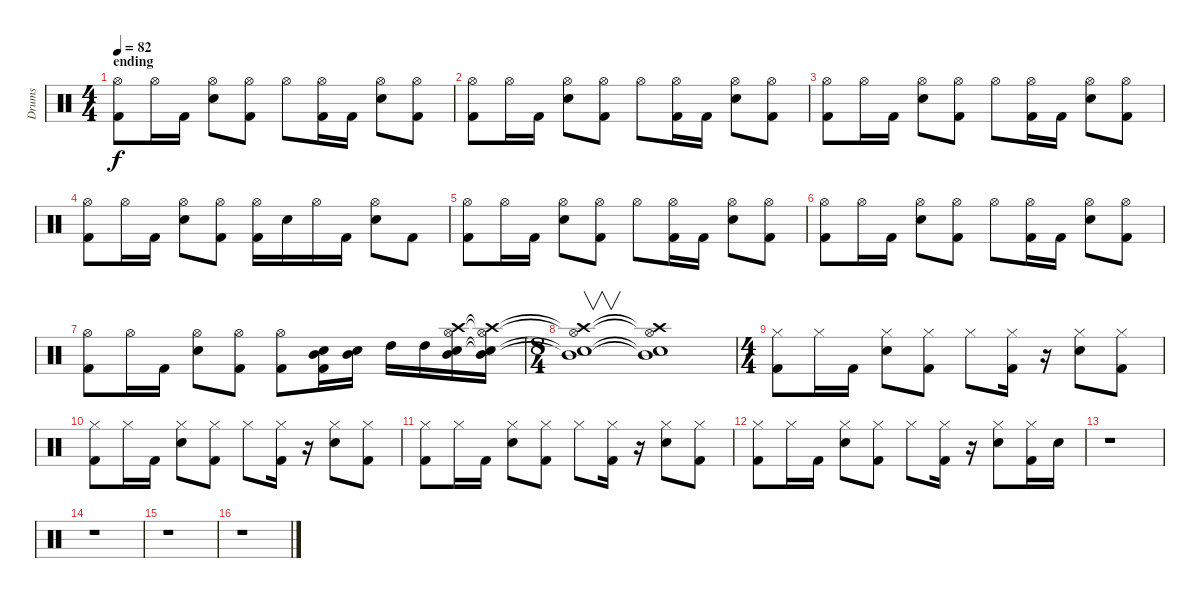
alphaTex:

\track ("Drums" "Drums") {instrument percussion}
\staff {score}
\articulation defaults
\ts (4 4)
\section ("" "ending")
\tempo 82
\clef neutral
\ks c
("Hi-Hat (open)" "Kick (hit) 2").8{dy f} "Hi-Hat (open)".16 "Kick (hit) 2".16 ("Hi-Hat (open)" "Snare (hit) 2").8 ("Hi-Hat (open)" "Kick (hit) 2").8 "Hi-Hat (open)".8 ("Hi-Hat (open)" "Kick (hit) 2").16 "Kick (hit) 2".16 ("Hi-Hat (open)" "Snare (hit) 2").8 ("Hi-Hat (open)" "Kick (hit) 2").8 |
("Hi-Hat (open)" "Kick (hit) 2").8 "Hi-Hat (open)".16 "Kick (hit) 2".16 ("Hi-Hat (open)" "Snare (hit) 2").8 ("Hi-Hat (open)" "Kick (hit) 2").8 "Hi-Hat (open)".8 ("Hi-Hat (open)" "Kick (hit) 2").16 "Kick (hit) 2".16 ("Hi-Hat (open)" "Snare (hit) 2").8 ("Hi-Hat (open)" "Kick (hit) 2").8 |
("Hi-Hat (open)" "Kick (hit) 2").8 "Hi-Hat (open)".16 "Kick (hit) 2".16 ("Hi-Hat (open)" "Snare (hit) 2").8 ("Hi-Hat (open)" "Kick (hit) 2").8 "Hi-Hat (open)".8 ("Hi-Hat (open)" "Kick (hit) 2").16 "Kick (hit) 2".16 ("Hi-Hat (open)" "Snare (hit) 2").8 ("Hi-Hat (open)" "Kick (hit) 2").8 |
("Hi-Hat (open)" "Kick (hit) 2").8 "Hi-Hat (open)".16 "Kick (hit) 2".16 ("Hi-Hat (open)" "Snare (hit) 2").8 ("Hi-Hat (open)" "Kick (hit) 2").8 ("Hi-Hat (open)" "Kick (hit) 2").16 "Snare (hit) 2".16 "Hi-Hat (open)".16 "Kick (hit) 2".16 ("Hi-Hat (open)" "Snare (hit) 2").8 "Kick (hit) 2".8 |
("Hi-Hat (open)" "Kick (hit) 2").8 "Hi-Hat (open)".16 "Kick (hit) 2".16 ("Hi-Hat (open)" "Snare (hit) 2").8 ("Hi-Hat (open)" "Kick (hit) 2").8 "Hi-Hat (open)".8 ("Hi-Hat (open)" "Kick (hit) 2").16 "Kick (hit) 2".16 ("Hi-Hat (open)" "Snare (hit) 2").8 ("Hi-Hat (open)" "Kick (hit) 2").8 |
("Hi-Hat (open)" "Kick (hit) 2").8 "Hi-Hat (open)".16 "Kick (hit) 2".16 ("Hi-Hat (open)" "Snare (hit) 2").8 ("Hi-Hat (open)" "Kick (hit) 2").8 "Hi-Hat (open)".8 ("Hi-Hat (open)" "Kick (hit) 2").16 "Kick (hit) 2".16 ("Hi-Hat (open)" "Snare (hit) 2").8 ("Hi-Hat (open)" "Kick (hit) 2").8 |
("Hi-Hat (open)" "Kick (hit) 2").8 "Hi-Hat (open)".16 "Kick (hit) 2".16 ("Hi-Hat (open)" "Snare (hit) 2").8 ("Hi-Hat (open)" "Kick (hit) 2").8 ("Hi-Hat (open)" "Kick (hit) 2").8 ("Snare (hit) 2" "Mid Tom (hit)" "Kick (hit) 2").16 ("Snare (hit) 2" "Mid Tom (hit)").16 "High Tom (hit)".16 "High Tom (hit)".16 ("Crash high (hit)" "Hi-Hat (open)" "Snare (hit) 2" "Mid Tom (hit)").16 ("Crash high (hit)"{t} "Hi-Hat (open)"{t} "Snare (hit) 2"{t} "Mid Tom (hit)"{t}).16 |
\ts (8 4)
("Crash high (hit)"{t} "Hi-Hat (open)"{t} "Snare (hit) 2"{t} "Mid Tom (hit)"{t}).1{v} ("Crash high (hit)"{t} "Hi-Hat (open)"{t} "Snare (hit) 2"{t} "Mid Tom (hit)"{t}).1 |
\ts (4 4)
("Hi-Hat (closed)" "Kick (hit) 2").8 "Hi-Hat (closed)".16 "Kick (hit) 2".16 ("Hi-Hat (closed)" "Snare (hit) 2").8 ("Hi-Hat (closed)" "Kick (hit) 2").8 "Hi-Hat (closed)".8 ("Hi-Hat (closed)" "Kick (hit) 2").16 r.16 ("Hi-Hat (closed)" "Snare (hit) 2").8 ("Hi-Hat (closed)" "Kick (hit) 2").8 |
("Hi-Hat (closed)" "Kick (hit) 2").8 "Hi-Hat (closed)".16 "Kick (hit) 2".16 ("Hi-Hat (closed)" "Snare (hit) 2").8 ("Hi-Hat (closed)" "Kick (hit) 2").8 "Hi-Hat (closed)".8 ("Hi-Hat (closed)" "Kick (hit) 2").16 r.16 ("Hi-Hat (closed)" "Snare (hit) 2").8 ("Hi-Hat (closed)" "Kick (hit) 2").8 |
("Hi-Hat (closed)" "Kick (hit) 2").8 "Hi-Hat (closed)".16 "Kick (hit) 2".16 ("Hi-Hat (closed)" "Snare (hit) 2").8 ("Hi-Hat (closed)" "Kick (hit) 2").8 "Hi-Hat (closed)".8 ("Hi-Hat (closed)" "Kick (hit) 2").16 r.16 ("Hi-Hat (closed)" "Snare (hit) 2").8 ("Hi-Hat (closed)" "Kick (hit) 2").8 |
("Hi-Hat (closed)" "Kick (hit) 2").8 "Hi-Hat (closed)".16 "Kick (hit) 2".16 ("Hi-Hat (closed)" "Snare (hit) 2").8 ("Hi-Hat (closed)" "Kick (hit) 2").8 "Hi-Hat (closed)".8 ("Hi-Hat (closed)" "Kick (hit) 2").16 r.16 ("Hi-Hat (closed)" "Snare (hit) 2").8 ("Hi-Hat (closed)" "Kick (hit) 2").16 "Snare (hit) 2".16 |
r.1 |
r.1 |
r.1 |
r.1
